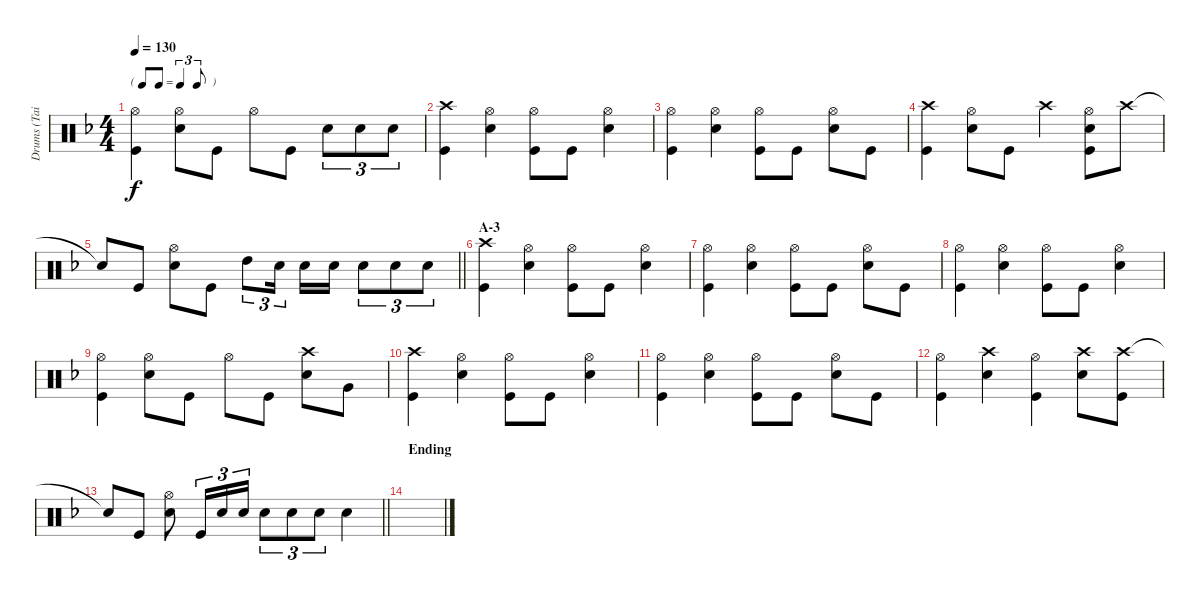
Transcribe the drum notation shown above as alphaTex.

\track ("Drums (Tainaka Ritsu)" "Drums (Tai") {instrument percussion}
\staff {score}
\articulation defaults
\ts (4 4)
\tf triplet8th
\tempo 130
\clef neutral
\ks f
("Hi-Hat (open)" "Kick (hit)").4{dy f} ("Hi-Hat (open)" "Snare (hit) 2").8 "Kick (hit)".8 "Hi-Hat (open)".8 "Kick (hit)".8 "Snare (hit) 2".8{tu (3 2)} "Snare (hit) 2".8{tu (3 2)} "Snare (hit) 2".8{tu (3 2)} |
("Crash high (hit)" "Kick (hit)").4 ("Hi-Hat (open)" "Snare (hit) 2").4 ("Hi-Hat (open)" "Kick (hit)").8 "Kick (hit)".8 ("Hi-Hat (open)" "Snare (hit) 2").4 |
("Hi-Hat (open)" "Kick (hit)").4 ("Hi-Hat (open)" "Snare (hit) 2").4 ("Hi-Hat (open)" "Kick (hit)").8 "Kick (hit)".8 ("Hi-Hat (open)" "Snare (hit) 2").8 "Kick (hit)".8 |
("Crash high (hit)" "Kick (hit)").4 ("Hi-Hat (open)" "Snare (hit) 2").8 "Kick (hit)".8 "Crash high (hit)".4 ("Hi-Hat (open)" "Snare (hit) 2" "Kick (hit)").8 "Crash high (hit)".8 |
\barLineRight lightlight "Snare (hit)"{t}.8 "Kick (hit)".8
("Hi-Hat (open)" "Snare (hit) 2").8 "Kick (hit)".8 "High Tom (hit)".8{tu (3 2)} "Snare (hit) 2".16{tu (3 2) beam splitsecondary} "Snare (hit) 2".16 "Snare (hit) 2".16 "Snare (hit) 2".8{tu (3 2)} "Snare (hit) 2".8{tu (3 2)} "Snare (hit) 2".8{tu (3 2)} |
\section ("" "A-3")
("Crash high (hit)" "Kick (hit)").4 ("Hi-Hat (open)" "Snare (hit) 2").4 ("Hi-Hat (open)" "Kick (hit)").8 "Kick (hit)".8 ("Hi-Hat (open)" "Snare (hit) 2").4 |
("Hi-Hat (open)" "Kick (hit)").4 ("Hi-Hat (open)" "Snare (hit) 2").4 ("Hi-Hat (open)" "Kick (hit)").8 "Kick (hit)".8 ("Hi-Hat (open)" "Snare (hit) 2").8 "Kick (hit)".8 |
("Hi-Hat (open)" "Kick (hit)").4 ("Hi-Hat (open)" "Snare (hit) 2").4 ("Hi-Hat (open)" "Kick (hit)").8 "Kick (hit)".8 ("Hi-Hat (open)" "Snare (hit) 2").4 |
("Hi-Hat (open)" "Kick (hit)").4 ("Hi-Hat (open)" "Snare (hit) 2").8 "Kick (hit)".8 "Hi-Hat (open)".8 "Kick (hit)".8 ("Crash high (hit)" "Snare (hit) 2").8 "Very Low Tom (hit)".8 |
("Crash high (hit)" "Kick (hit)").4 ("Hi-Hat (open)" "Snare (hit) 2").4 ("Hi-Hat (open)" "Kick (hit)").8 "Kick (hit)".8 ("Hi-Hat (open)" "Snare (hit) 2").4 |
("Hi-Hat (open)" "Kick (hit)").4 ("Hi-Hat (open)" "Snare (hit) 2").4 ("Hi-Hat (open)" "Kick (hit)").8 "Kick (hit)".8 ("Hi-Hat (open)" "Snare (hit) 2").8 "Kick (hit)".8 |
("Hi-Hat (open)" "Kick (hit)").4 ("Crash high (hit)" "Snare (hit) 2").4 ("Hi-Hat (open)" "Kick (hit)").4 ("Crash high (hit)" "Snare (hit) 2").8 ("Crash high (hit)" "Kick (hit)").8 |
\barLineRight lightlight "Snare (hit)"{t}.8 "Kick (hit)".8
("Hi-Hat (open)" "Snare (hit) 2").8 "Kick (hit)".16{tu (3 2)} "Snare (hit) 2".16{tu (3 2)} "Snare (hit) 2".16{tu (3 2)} "Snare (hit) 2".8{tu (3 2)} "Snare (hit) 2".8{tu (3 2)} "Snare (hit) 2".8{tu (3 2)} "Snare (hit) 2".4 |
\section ("" "Ending")
